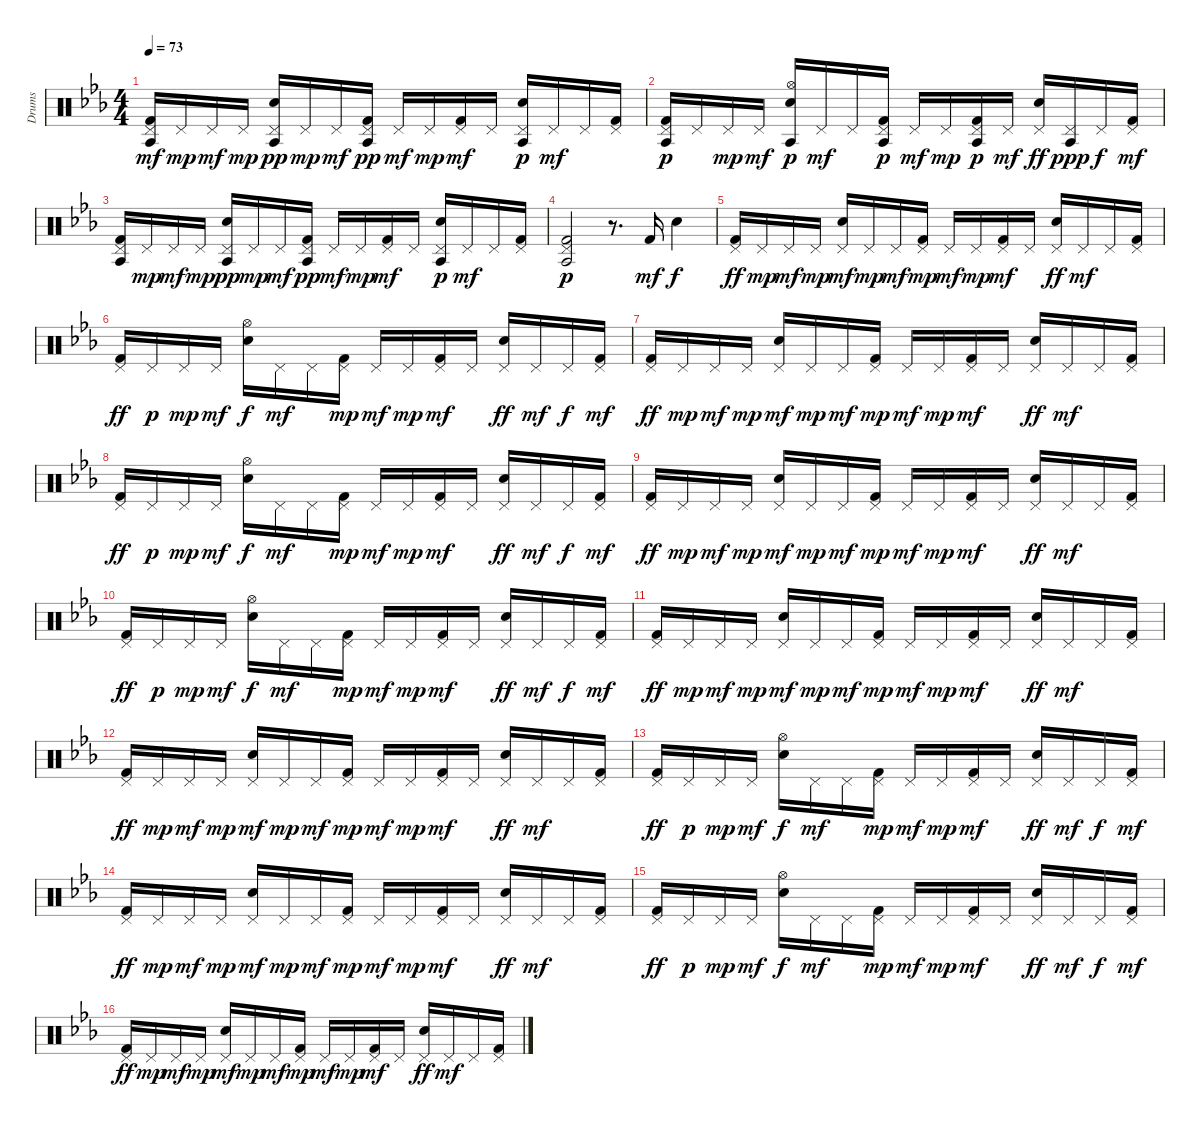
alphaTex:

\track ("Drums" "Drums") {instrument percussion}
\staff {score}
\articulation defaults
\ts (4 4)
\tempo 73
\clef neutral
\ks eb
("Kick (hit) 2" "Pedal Hi-Hat (hit)" "Agogo tow (hit)").16{dy mf} "Pedal Hi-Hat (hit)".16{dy mp} "Pedal Hi-Hat (hit)".16{dy mf} "Pedal Hi-Hat (hit)".16{dy mp} ("Snare (hit) 2" "Pedal Hi-Hat (hit)" "Agogo tow (hit)").16{dy pp} "Pedal Hi-Hat (hit)".16{dy mp} "Pedal Hi-Hat (hit)".16{dy mf} ("Kick (hit) 2" "Pedal Hi-Hat (hit)" "Agogo tow (hit)").16{dy pp} "Pedal Hi-Hat (hit)".16{dy mf} "Pedal Hi-Hat (hit)".16{dy mp} ("Kick (hit) 2" "Pedal Hi-Hat (hit)").16{dy mf} "Pedal Hi-Hat (hit)".16 ("Snare (hit) 2" "Pedal Hi-Hat (hit)" "Agogo tow (hit)").16{dy p} "Pedal Hi-Hat (hit)".16{dy mf} "Pedal Hi-Hat (hit)".16 ("Kick (hit) 2" "Pedal Hi-Hat (hit)").16 |
("Kick (hit) 2" "Pedal Hi-Hat (hit)" "Agogo tow (hit)").16{dy p} "Pedal Hi-Hat (hit)".16 "Pedal Hi-Hat (hit)".16{dy mp} "Pedal Hi-Hat (hit)".16{dy mf} ("Snare (hit) 2" "Hi-Hat (open)" "Agogo tow (hit)").16{dy p} "Pedal Hi-Hat (hit)".16{dy mf} "Pedal Hi-Hat (hit)".16 ("Kick (hit) 2" "Pedal Hi-Hat (hit)" "Agogo tow (hit)").16{dy p} "Pedal Hi-Hat (hit)".16{dy mf} "Pedal Hi-Hat (hit)".16{dy mp} ("Kick (hit) 2" "Pedal Hi-Hat (hit)" "Agogo tow (hit)").16{dy p} "Pedal Hi-Hat (hit)".16{dy mf} ("Snare (hit) 2" "Pedal Hi-Hat (hit)").16{dy ff} ("Pedal Hi-Hat (hit)" "Agogo tow (hit)").16{dy ppp} "Pedal Hi-Hat (hit)".16{dy f} ("Kick (hit) 2" "Pedal Hi-Hat (hit)").16{dy mf} |
("Kick (hit) 2" "Pedal Hi-Hat (hit)" "Agogo tow (hit)").16 "Pedal Hi-Hat (hit)".16{dy mp} "Pedal Hi-Hat (hit)".16{dy mf} "Pedal Hi-Hat (hit)".16{dy mp} ("Snare (hit) 2" "Pedal Hi-Hat (hit)" "Agogo tow (hit)").16{dy pp} "Pedal Hi-Hat (hit)".16{dy mp} "Pedal Hi-Hat (hit)".16{dy mf} ("Kick (hit) 2" "Pedal Hi-Hat (hit)" "Agogo tow (hit)").16{dy pp} "Pedal Hi-Hat (hit)".16{dy mf} "Pedal Hi-Hat (hit)".16{dy mp} ("Kick (hit) 2" "Pedal Hi-Hat (hit)").16{dy mf} "Pedal Hi-Hat (hit)".16 ("Snare (hit) 2" "Pedal Hi-Hat (hit)" "Agogo tow (hit)").16{dy p} "Pedal Hi-Hat (hit)".16{dy mf} "Pedal Hi-Hat (hit)".16 ("Kick (hit) 2" "Pedal Hi-Hat (hit)").16 |
("Kick (hit) 2" "Pedal Hi-Hat (hit)" "Agogo tow (hit)").2{dy p} r.8{d} "Kick (hit) 2".16{dy mf} "Snare (hit) 2".4{dy f} |
("Kick (hit) 2" "Pedal Hi-Hat (hit)").16{dy ff} "Pedal Hi-Hat (hit)".16{dy mp} "Pedal Hi-Hat (hit)".16{dy mf} "Pedal Hi-Hat (hit)".16{dy mp} ("Snare (hit) 2" "Pedal Hi-Hat (hit)").16{dy mf} "Pedal Hi-Hat (hit)".16{dy mp} "Pedal Hi-Hat (hit)".16{dy mf} ("Kick (hit) 2" "Pedal Hi-Hat (hit)").16{dy mp} "Pedal Hi-Hat (hit)".16{dy mf} "Pedal Hi-Hat (hit)".16{dy mp} ("Kick (hit) 2" "Pedal Hi-Hat (hit)").16{dy mf} "Pedal Hi-Hat (hit)".16 ("Snare (hit) 2" "Pedal Hi-Hat (hit)").16{dy ff} "Pedal Hi-Hat (hit)".16{dy mf} "Pedal Hi-Hat (hit)".16 ("Kick (hit) 2" "Pedal Hi-Hat (hit)").16 |
("Kick (hit) 2" "Pedal Hi-Hat (hit)").16{dy ff} "Pedal Hi-Hat (hit)".16{dy p} "Pedal Hi-Hat (hit)".16{dy mp} "Pedal Hi-Hat (hit)".16{dy mf} ("Snare (hit) 2" "Hi-Hat (open)").16{dy f} "Pedal Hi-Hat (hit)".16{dy mf} "Pedal Hi-Hat (hit)".16 ("Kick (hit) 2" "Pedal Hi-Hat (hit)").16{dy mp} "Pedal Hi-Hat (hit)".16{dy mf} "Pedal Hi-Hat (hit)".16{dy mp} ("Kick (hit) 2" "Pedal Hi-Hat (hit)").16{dy mf} "Pedal Hi-Hat (hit)".16 ("Snare (hit) 2" "Pedal Hi-Hat (hit)").16{dy ff} "Pedal Hi-Hat (hit)".16{dy mf} "Pedal Hi-Hat (hit)".16{dy f} ("Kick (hit) 2" "Pedal Hi-Hat (hit)").16{dy mf} |
("Kick (hit) 2" "Pedal Hi-Hat (hit)").16{dy ff} "Pedal Hi-Hat (hit)".16{dy mp} "Pedal Hi-Hat (hit)".16{dy mf} "Pedal Hi-Hat (hit)".16{dy mp} ("Snare (hit) 2" "Pedal Hi-Hat (hit)").16{dy mf} "Pedal Hi-Hat (hit)".16{dy mp} "Pedal Hi-Hat (hit)".16{dy mf} ("Kick (hit) 2" "Pedal Hi-Hat (hit)").16{dy mp} "Pedal Hi-Hat (hit)".16{dy mf} "Pedal Hi-Hat (hit)".16{dy mp} ("Kick (hit) 2" "Pedal Hi-Hat (hit)").16{dy mf} "Pedal Hi-Hat (hit)".16 ("Snare (hit) 2" "Pedal Hi-Hat (hit)").16{dy ff} "Pedal Hi-Hat (hit)".16{dy mf} "Pedal Hi-Hat (hit)".16 ("Kick (hit) 2" "Pedal Hi-Hat (hit)").16 |
("Kick (hit) 2" "Pedal Hi-Hat (hit)").16{dy ff} "Pedal Hi-Hat (hit)".16{dy p} "Pedal Hi-Hat (hit)".16{dy mp} "Pedal Hi-Hat (hit)".16{dy mf} ("Snare (hit) 2" "Hi-Hat (open)").16{dy f} "Pedal Hi-Hat (hit)".16{dy mf} "Pedal Hi-Hat (hit)".16 ("Kick (hit) 2" "Pedal Hi-Hat (hit)").16{dy mp} "Pedal Hi-Hat (hit)".16{dy mf} "Pedal Hi-Hat (hit)".16{dy mp} ("Kick (hit) 2" "Pedal Hi-Hat (hit)").16{dy mf} "Pedal Hi-Hat (hit)".16 ("Snare (hit) 2" "Pedal Hi-Hat (hit)").16{dy ff} "Pedal Hi-Hat (hit)".16{dy mf} "Pedal Hi-Hat (hit)".16{dy f} ("Kick (hit) 2" "Pedal Hi-Hat (hit)").16{dy mf} |
("Kick (hit) 2" "Pedal Hi-Hat (hit)").16{dy ff} "Pedal Hi-Hat (hit)".16{dy mp} "Pedal Hi-Hat (hit)".16{dy mf} "Pedal Hi-Hat (hit)".16{dy mp} ("Snare (hit) 2" "Pedal Hi-Hat (hit)").16{dy mf} "Pedal Hi-Hat (hit)".16{dy mp} "Pedal Hi-Hat (hit)".16{dy mf} ("Kick (hit) 2" "Pedal Hi-Hat (hit)").16{dy mp} "Pedal Hi-Hat (hit)".16{dy mf} "Pedal Hi-Hat (hit)".16{dy mp} ("Kick (hit) 2" "Pedal Hi-Hat (hit)").16{dy mf} "Pedal Hi-Hat (hit)".16 ("Snare (hit) 2" "Pedal Hi-Hat (hit)").16{dy ff} "Pedal Hi-Hat (hit)".16{dy mf} "Pedal Hi-Hat (hit)".16 ("Kick (hit) 2" "Pedal Hi-Hat (hit)").16 |
("Kick (hit) 2" "Pedal Hi-Hat (hit)").16{dy ff} "Pedal Hi-Hat (hit)".16{dy p} "Pedal Hi-Hat (hit)".16{dy mp} "Pedal Hi-Hat (hit)".16{dy mf} ("Snare (hit) 2" "Hi-Hat (open)").16{dy f} "Pedal Hi-Hat (hit)".16{dy mf} "Pedal Hi-Hat (hit)".16 ("Kick (hit) 2" "Pedal Hi-Hat (hit)").16{dy mp} "Pedal Hi-Hat (hit)".16{dy mf} "Pedal Hi-Hat (hit)".16{dy mp} ("Kick (hit) 2" "Pedal Hi-Hat (hit)").16{dy mf} "Pedal Hi-Hat (hit)".16 ("Snare (hit) 2" "Pedal Hi-Hat (hit)").16{dy ff} "Pedal Hi-Hat (hit)".16{dy mf} "Pedal Hi-Hat (hit)".16{dy f} ("Kick (hit) 2" "Pedal Hi-Hat (hit)").16{dy mf} |
("Kick (hit) 2" "Pedal Hi-Hat (hit)").16{dy ff} "Pedal Hi-Hat (hit)".16{dy mp} "Pedal Hi-Hat (hit)".16{dy mf} "Pedal Hi-Hat (hit)".16{dy mp} ("Snare (hit) 2" "Pedal Hi-Hat (hit)").16{dy mf} "Pedal Hi-Hat (hit)".16{dy mp} "Pedal Hi-Hat (hit)".16{dy mf} ("Kick (hit) 2" "Pedal Hi-Hat (hit)").16{dy mp} "Pedal Hi-Hat (hit)".16{dy mf} "Pedal Hi-Hat (hit)".16{dy mp} ("Kick (hit) 2" "Pedal Hi-Hat (hit)").16{dy mf} "Pedal Hi-Hat (hit)".16 ("Snare (hit) 2" "Pedal Hi-Hat (hit)").16{dy ff} "Pedal Hi-Hat (hit)".16{dy mf} "Pedal Hi-Hat (hit)".16 ("Kick (hit) 2" "Pedal Hi-Hat (hit)").16 |
("Kick (hit) 2" "Pedal Hi-Hat (hit)").16{dy ff} "Pedal Hi-Hat (hit)".16{dy mp} "Pedal Hi-Hat (hit)".16{dy mf} "Pedal Hi-Hat (hit)".16{dy mp} ("Snare (hit) 2" "Pedal Hi-Hat (hit)").16{dy mf} "Pedal Hi-Hat (hit)".16{dy mp} "Pedal Hi-Hat (hit)".16{dy mf} ("Kick (hit) 2" "Pedal Hi-Hat (hit)").16{dy mp} "Pedal Hi-Hat (hit)".16{dy mf} "Pedal Hi-Hat (hit)".16{dy mp} ("Kick (hit) 2" "Pedal Hi-Hat (hit)").16{dy mf} "Pedal Hi-Hat (hit)".16 ("Snare (hit) 2" "Pedal Hi-Hat (hit)").16{dy ff} "Pedal Hi-Hat (hit)".16{dy mf} "Pedal Hi-Hat (hit)".16 ("Kick (hit) 2" "Pedal Hi-Hat (hit)").16 |
("Kick (hit) 2" "Pedal Hi-Hat (hit)").16{dy ff} "Pedal Hi-Hat (hit)".16{dy p} "Pedal Hi-Hat (hit)".16{dy mp} "Pedal Hi-Hat (hit)".16{dy mf} ("Snare (hit) 2" "Hi-Hat (open)").16{dy f} "Pedal Hi-Hat (hit)".16{dy mf} "Pedal Hi-Hat (hit)".16 ("Kick (hit) 2" "Pedal Hi-Hat (hit)").16{dy mp} "Pedal Hi-Hat (hit)".16{dy mf} "Pedal Hi-Hat (hit)".16{dy mp} ("Kick (hit) 2" "Pedal Hi-Hat (hit)").16{dy mf} "Pedal Hi-Hat (hit)".16 ("Snare (hit) 2" "Pedal Hi-Hat (hit)").16{dy ff} "Pedal Hi-Hat (hit)".16{dy mf} "Pedal Hi-Hat (hit)".16{dy f} ("Kick (hit) 2" "Pedal Hi-Hat (hit)").16{dy mf} |
("Kick (hit) 2" "Pedal Hi-Hat (hit)").16{dy ff} "Pedal Hi-Hat (hit)".16{dy mp} "Pedal Hi-Hat (hit)".16{dy mf} "Pedal Hi-Hat (hit)".16{dy mp} ("Snare (hit) 2" "Pedal Hi-Hat (hit)").16{dy mf} "Pedal Hi-Hat (hit)".16{dy mp} "Pedal Hi-Hat (hit)".16{dy mf} ("Kick (hit) 2" "Pedal Hi-Hat (hit)").16{dy mp} "Pedal Hi-Hat (hit)".16{dy mf} "Pedal Hi-Hat (hit)".16{dy mp} ("Kick (hit) 2" "Pedal Hi-Hat (hit)").16{dy mf} "Pedal Hi-Hat (hit)".16 ("Snare (hit) 2" "Pedal Hi-Hat (hit)").16{dy ff} "Pedal Hi-Hat (hit)".16{dy mf} "Pedal Hi-Hat (hit)".16 ("Kick (hit) 2" "Pedal Hi-Hat (hit)").16 |
("Kick (hit) 2" "Pedal Hi-Hat (hit)").16{dy ff} "Pedal Hi-Hat (hit)".16{dy p} "Pedal Hi-Hat (hit)".16{dy mp} "Pedal Hi-Hat (hit)".16{dy mf} ("Snare (hit) 2" "Hi-Hat (open)").16{dy f} "Pedal Hi-Hat (hit)".16{dy mf} "Pedal Hi-Hat (hit)".16 ("Kick (hit) 2" "Pedal Hi-Hat (hit)").16{dy mp} "Pedal Hi-Hat (hit)".16{dy mf} "Pedal Hi-Hat (hit)".16{dy mp} ("Kick (hit) 2" "Pedal Hi-Hat (hit)").16{dy mf} "Pedal Hi-Hat (hit)".16 ("Snare (hit) 2" "Pedal Hi-Hat (hit)").16{dy ff} "Pedal Hi-Hat (hit)".16{dy mf} "Pedal Hi-Hat (hit)".16{dy f} ("Kick (hit) 2" "Pedal Hi-Hat (hit)").16{dy mf} |
("Kick (hit) 2" "Pedal Hi-Hat (hit)").16{dy ff} "Pedal Hi-Hat (hit)".16{dy mp} "Pedal Hi-Hat (hit)".16{dy mf} "Pedal Hi-Hat (hit)".16{dy mp} ("Snare (hit) 2" "Pedal Hi-Hat (hit)").16{dy mf} "Pedal Hi-Hat (hit)".16{dy mp} "Pedal Hi-Hat (hit)".16{dy mf} ("Kick (hit) 2" "Pedal Hi-Hat (hit)").16{dy mp} "Pedal Hi-Hat (hit)".16{dy mf} "Pedal Hi-Hat (hit)".16{dy mp} ("Kick (hit) 2" "Pedal Hi-Hat (hit)").16{dy mf} "Pedal Hi-Hat (hit)".16 ("Snare (hit) 2" "Pedal Hi-Hat (hit)").16{dy ff} "Pedal Hi-Hat (hit)".16{dy mf} "Pedal Hi-Hat (hit)".16 ("Kick (hit) 2" "Pedal Hi-Hat (hit)").16
